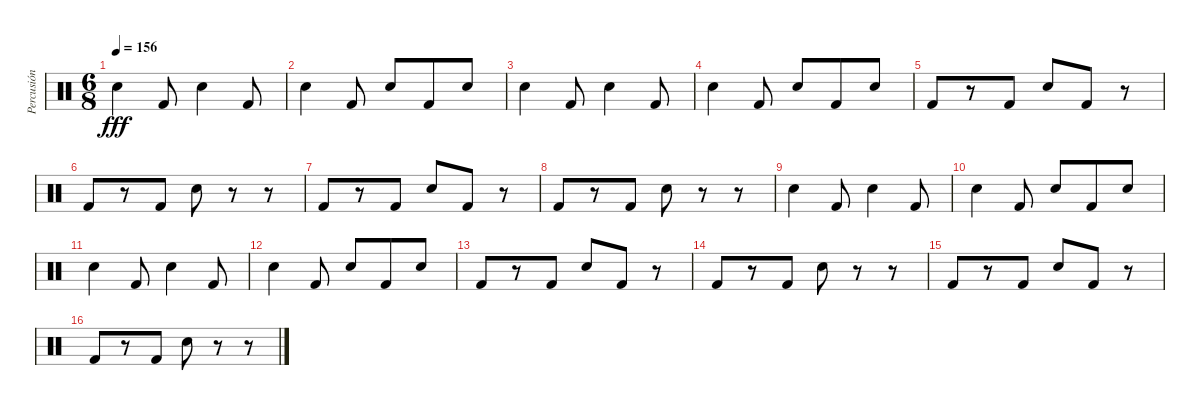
\track ("Percusión" "Percusión") {instrument percussion}
\staff {score}
\articulation defaults
\ts (6 8)
\tempo 156
\clef neutral
\ks c "Snare (hit) 2".4{dy fff} "Kick (hit) 2".8 "Snare (hit) 2".4 "Kick (hit) 2".8
|
"Snare (hit) 2".4 "Kick (hit) 2".8 "Snare (hit) 2".8 "Kick (hit) 2".8 "Snare (hit) 2".8 |
"Snare (hit) 2".4 "Kick (hit) 2".8 "Snare (hit) 2".4 "Kick (hit) 2".8 |
"Snare (hit) 2".4 "Kick (hit) 2".8 "Snare (hit) 2".8 "Kick (hit) 2".8 "Snare (hit) 2".8 |
"Kick (hit) 2".8 r.8 "Kick (hit) 2".8 "Snare (hit) 2".8 "Kick (hit) 2".8 r.8 |
"Kick (hit) 2".8 r.8 "Kick (hit) 2".8 "Snare (hit) 2".8 r.8 r.8 |
"Kick (hit) 2".8 r.8 "Kick (hit) 2".8 "Snare (hit) 2".8 "Kick (hit) 2".8 r.8 |
"Kick (hit) 2".8 r.8 "Kick (hit) 2".8 "Snare (hit) 2".8 r.8 r.8 |
"Snare (hit) 2".4 "Kick (hit) 2".8 "Snare (hit) 2".4 "Kick (hit) 2".8 |
"Snare (hit) 2".4 "Kick (hit) 2".8 "Snare (hit) 2".8 "Kick (hit) 2".8 "Snare (hit) 2".8 |
"Snare (hit) 2".4 "Kick (hit) 2".8 "Snare (hit) 2".4 "Kick (hit) 2".8 |
"Snare (hit) 2".4 "Kick (hit) 2".8 "Snare (hit) 2".8 "Kick (hit) 2".8 "Snare (hit) 2".8 |
"Kick (hit) 2".8 r.8 "Kick (hit) 2".8 "Snare (hit) 2".8 "Kick (hit) 2".8 r.8 |
"Kick (hit) 2".8 r.8 "Kick (hit) 2".8 "Snare (hit) 2".8 r.8 r.8 |
"Kick (hit) 2".8 r.8 "Kick (hit) 2".8 "Snare (hit) 2".8 "Kick (hit) 2".8 r.8 |
"Kick (hit) 2".8 r.8 "Kick (hit) 2".8 "Snare (hit) 2".8 r.8 r.8
